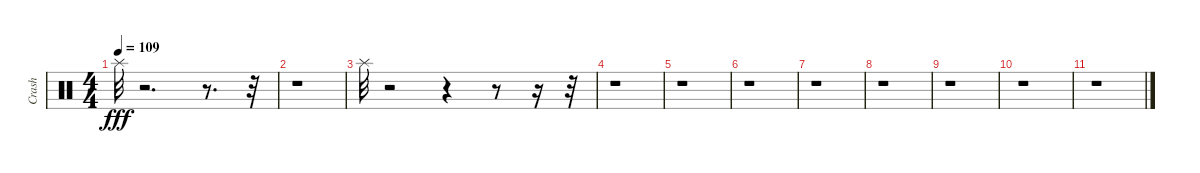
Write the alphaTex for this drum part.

\track ("Crash" "Crash") {instrument percussion}
\staff {score}
\articulation defaults
\ts (4 4)
\tempo 109
\clef neutral
\ks c "Splash (hit)".32{dy fff}
r.2{d} r.8{d} r.32 |
r.1 |
"Splash (hit)".32 r.2 r.4 r.8 r.16 r.32 |
r.1 |
r.1 |
r.1 |
r.1 |
r.1 |
r.1 |
r.1 |
r.1
